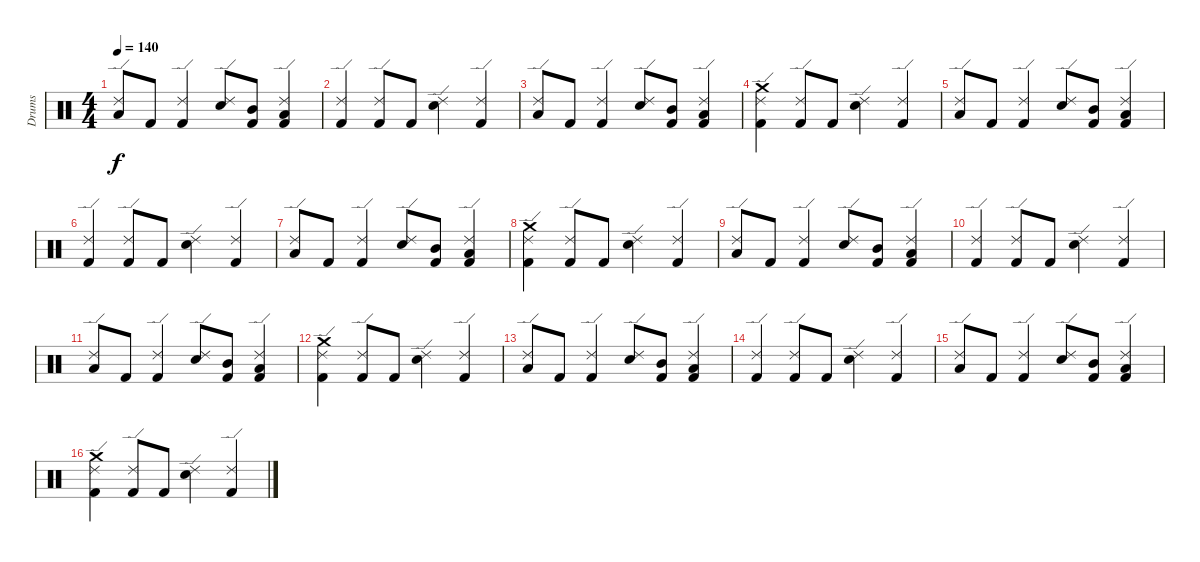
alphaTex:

\track ("Drums" "Drums") {instrument percussion}
\staff {score}
\articulation defaults
\ts (4 4)
\tempo 140
\clef neutral
\ks c
("Ride (edge) 2" "Low Tom (hit)").8{dy f} "Kick (hit) 2".8 ("Ride (edge) 2" "Kick (hit) 2").4 ("Ride (edge) 2" "Snare (hit) 2").8 ("Mid Tom (hit)" "Kick (hit) 2").8 ("Ride (edge) 2" "Low Tom (hit)" "Kick (hit) 2").4 |
("Ride (edge) 2" "Kick (hit) 2").4 ("Ride (edge) 2" "Kick (hit) 2").8 "Kick (hit) 2".8 ("Ride (edge) 2" "Snare (hit) 2").4 ("Ride (edge) 2" "Kick (hit) 2").4 |
("Ride (edge) 2" "Low Tom (hit)").8 "Kick (hit) 2".8 ("Ride (edge) 2" "Kick (hit) 2").4 ("Ride (edge) 2" "Snare (hit) 2").8 ("Mid Tom (hit)" "Kick (hit) 2").8 ("Ride (edge) 2" "Low Tom (hit)" "Kick (hit) 2").4 |
("Ride (edge) 2" "Crash medium (hit)" "Kick (hit) 2").4 ("Ride (edge) 2" "Kick (hit) 2").8 "Kick (hit) 2".8 ("Ride (edge) 2" "Snare (hit) 2").4 ("Ride (edge) 2" "Kick (hit) 2").4 |
("Ride (edge) 2" "Low Tom (hit)").8 "Kick (hit) 2".8 ("Ride (edge) 2" "Kick (hit) 2").4 ("Ride (edge) 2" "Snare (hit) 2").8 ("Mid Tom (hit)" "Kick (hit) 2").8 ("Ride (edge) 2" "Low Tom (hit)" "Kick (hit) 2").4 |
("Ride (edge) 2" "Kick (hit) 2").4 ("Ride (edge) 2" "Kick (hit) 2").8 "Kick (hit) 2".8 ("Ride (edge) 2" "Snare (hit) 2").4 ("Ride (edge) 2" "Kick (hit) 2").4 |
("Ride (edge) 2" "Low Tom (hit)").8 "Kick (hit) 2".8 ("Ride (edge) 2" "Kick (hit) 2").4 ("Ride (edge) 2" "Snare (hit) 2").8 ("Mid Tom (hit)" "Kick (hit) 2").8 ("Ride (edge) 2" "Low Tom (hit)" "Kick (hit) 2").4 |
("Ride (edge) 2" "Crash medium (hit)" "Kick (hit) 2").4 ("Ride (edge) 2" "Kick (hit) 2").8 "Kick (hit) 2".8 ("Ride (edge) 2" "Snare (hit) 2").4 ("Ride (edge) 2" "Kick (hit) 2").4 |
("Ride (edge) 2" "Low Tom (hit)").8 "Kick (hit) 2".8 ("Ride (edge) 2" "Kick (hit) 2").4 ("Ride (edge) 2" "Snare (hit) 2").8 ("Mid Tom (hit)" "Kick (hit) 2").8 ("Ride (edge) 2" "Low Tom (hit)" "Kick (hit) 2").4 |
("Ride (edge) 2" "Kick (hit) 2").4 ("Ride (edge) 2" "Kick (hit) 2").8 "Kick (hit) 2".8 ("Ride (edge) 2" "Snare (hit) 2").4 ("Ride (edge) 2" "Kick (hit) 2").4 |
("Ride (edge) 2" "Low Tom (hit)").8 "Kick (hit) 2".8 ("Ride (edge) 2" "Kick (hit) 2").4 ("Ride (edge) 2" "Snare (hit) 2").8 ("Mid Tom (hit)" "Kick (hit) 2").8 ("Ride (edge) 2" "Low Tom (hit)" "Kick (hit) 2").4 |
("Ride (edge) 2" "Crash medium (hit)" "Kick (hit) 2").4 ("Ride (edge) 2" "Kick (hit) 2").8 "Kick (hit) 2".8 ("Ride (edge) 2" "Snare (hit) 2").4 ("Ride (edge) 2" "Kick (hit) 2").4 |
("Ride (edge) 2" "Low Tom (hit)").8 "Kick (hit) 2".8 ("Ride (edge) 2" "Kick (hit) 2").4 ("Ride (edge) 2" "Snare (hit) 2").8 ("Mid Tom (hit)" "Kick (hit) 2").8 ("Ride (edge) 2" "Low Tom (hit)" "Kick (hit) 2").4 |
("Ride (edge) 2" "Kick (hit) 2").4 ("Ride (edge) 2" "Kick (hit) 2").8 "Kick (hit) 2".8 ("Ride (edge) 2" "Snare (hit) 2").4 ("Ride (edge) 2" "Kick (hit) 2").4 |
("Ride (edge) 2" "Low Tom (hit)").8 "Kick (hit) 2".8 ("Ride (edge) 2" "Kick (hit) 2").4 ("Ride (edge) 2" "Snare (hit) 2").8 ("Mid Tom (hit)" "Kick (hit) 2").8 ("Ride (edge) 2" "Low Tom (hit)" "Kick (hit) 2").4 |
("Ride (edge) 2" "Crash medium (hit)" "Kick (hit) 2").4 ("Ride (edge) 2" "Kick (hit) 2").8 "Kick (hit) 2".8 ("Ride (edge) 2" "Snare (hit) 2").4 ("Ride (edge) 2" "Kick (hit) 2").4
